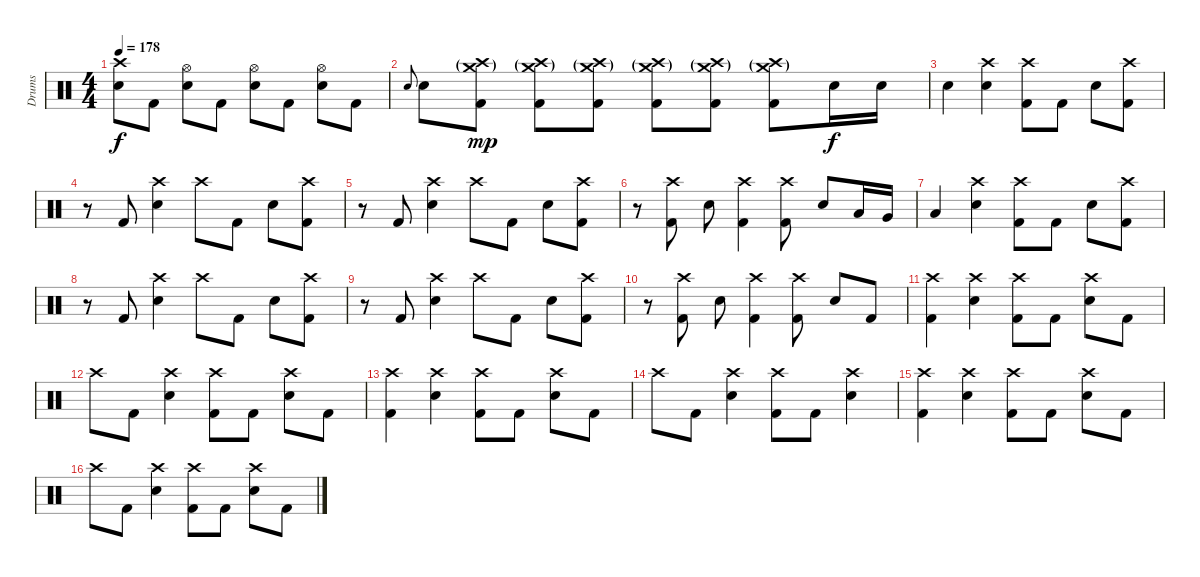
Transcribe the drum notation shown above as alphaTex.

\track ("Drums" "Drums") {instrument percussion}
\staff {score}
\articulation defaults
\ts (4 4)
\tempo 178
\clef neutral
\ks c
("Crash high (hit)" "Electric Snare (hit)").8{dy f} "Kick (hit) 2".8 ("Hi-Hat (open)" "Electric Snare (hit)").8 "Kick (hit) 2".8 ("Hi-Hat (open)" "Electric Snare (hit)").8 "Kick (hit) 2".8 ("Hi-Hat (open)" "Electric Snare (hit)").8 "Kick (hit) 2".8 |
"Electric Snare (hit)".8{gr onbeat} "Electric Snare (hit)".8 ("Crash high (hit)"{g} "Crash medium (hit)"{g} "Kick (hit) 2").8{dy mp} ("Crash high (hit)"{g} "Crash medium (hit)"{g} "Kick (hit) 2").8 ("Crash high (hit)"{g} "Crash medium (hit)"{g} "Kick (hit) 2").8 ("Crash high (hit)"{g} "Crash medium (hit)"{g} "Kick (hit) 2").8 ("Crash high (hit)"{g} "Crash medium (hit)"{g} "Kick (hit) 2").8 ("Crash high (hit)"{g} "Crash medium (hit)"{g} "Kick (hit) 2").8 "Electric Snare (hit)".16{dy f} "Electric Snare (hit)".16 |
"Electric Snare (hit)".4 ("Crash high (hit)" "Electric Snare (hit)").4 ("Crash high (hit)" "Kick (hit) 2").8 "Kick (hit) 2".8 "Electric Snare (hit)".8 ("Crash high (hit)" "Kick (hit) 2").8 |
r.8 "Kick (hit) 2".8 ("Crash high (hit)" "Electric Snare (hit)").4 "Crash high (hit)".8 "Kick (hit) 2".8 "Electric Snare (hit)".8 ("Crash high (hit)" "Kick (hit) 2").8 |
r.8 "Kick (hit) 2".8 ("Crash high (hit)" "Electric Snare (hit)").4 "Crash high (hit)".8 "Kick (hit) 2".8 "Electric Snare (hit)".8 ("Crash high (hit)" "Kick (hit) 2").8 |
r.8 ("Crash high (hit)" "Kick (hit) 2").8 "Electric Snare (hit)".8 ("Crash high (hit)" "Kick (hit) 2").4 ("Crash high (hit)" "Kick (hit) 2").8 "Electric Snare (hit)".8 "Low Tom (hit)".16 "Very Low Tom (hit)".16 |
"Low Floor Tom (hit)".4 ("Crash high (hit)" "Electric Snare (hit)").4 ("Crash high (hit)" "Kick (hit) 2").8 "Kick (hit) 2".8 "Electric Snare (hit)".8 ("Crash high (hit)" "Kick (hit) 2").8 |
r.8 "Kick (hit) 2".8 ("Crash high (hit)" "Electric Snare (hit)").4 "Crash high (hit)".8 "Kick (hit) 2".8 "Electric Snare (hit)".8 ("Crash high (hit)" "Kick (hit) 2").8 |
r.8 "Kick (hit) 2".8 ("Crash high (hit)" "Electric Snare (hit)").4 "Crash high (hit)".8 "Kick (hit) 2".8 "Electric Snare (hit)".8 ("Crash high (hit)" "Kick (hit) 2").8 |
r.8 ("Crash high (hit)" "Kick (hit) 2").8 "Electric Snare (hit)".8 ("Crash high (hit)" "Kick (hit) 2").4 ("Crash high (hit)" "Kick (hit) 2").8 "Electric Snare (hit)".8 "Kick (hit) 2".8 |
("Crash high (hit)" "Kick (hit) 2").4 ("Crash high (hit)" "Electric Snare (hit)").4 ("Crash high (hit)" "Kick (hit) 2").8 "Kick (hit) 2".8 ("Crash high (hit)" "Electric Snare (hit)").8 "Kick (hit) 2".8 |
"Crash high (hit)".8 "Kick (hit) 2".8 ("Crash high (hit)" "Electric Snare (hit)").4 ("Crash high (hit)" "Kick (hit) 2").8 "Kick (hit) 2".8 ("Crash high (hit)" "Electric Snare (hit)").8 "Kick (hit) 2".8 |
("Crash high (hit)" "Kick (hit) 2").4 ("Crash high (hit)" "Electric Snare (hit)").4 ("Crash high (hit)" "Kick (hit) 2").8 "Kick (hit) 2".8 ("Crash high (hit)" "Electric Snare (hit)").8 "Kick (hit) 2".8 |
"Crash high (hit)".8 "Kick (hit) 2".8 ("Crash high (hit)" "Electric Snare (hit)").4 ("Crash high (hit)" "Kick (hit) 2").8 "Kick (hit) 2".8 ("Crash high (hit)" "Electric Snare (hit)").4 |
("Crash high (hit)" "Kick (hit) 2").4 ("Crash high (hit)" "Electric Snare (hit)").4 ("Crash high (hit)" "Kick (hit) 2").8 "Kick (hit) 2".8 ("Crash high (hit)" "Electric Snare (hit)").8 "Kick (hit) 2".8 |
"Crash high (hit)".8 "Kick (hit) 2".8 ("Crash high (hit)" "Electric Snare (hit)").4 ("Crash high (hit)" "Kick (hit) 2").8 "Kick (hit) 2".8 ("Crash high (hit)" "Electric Snare (hit)").8 "Kick (hit) 2".8
